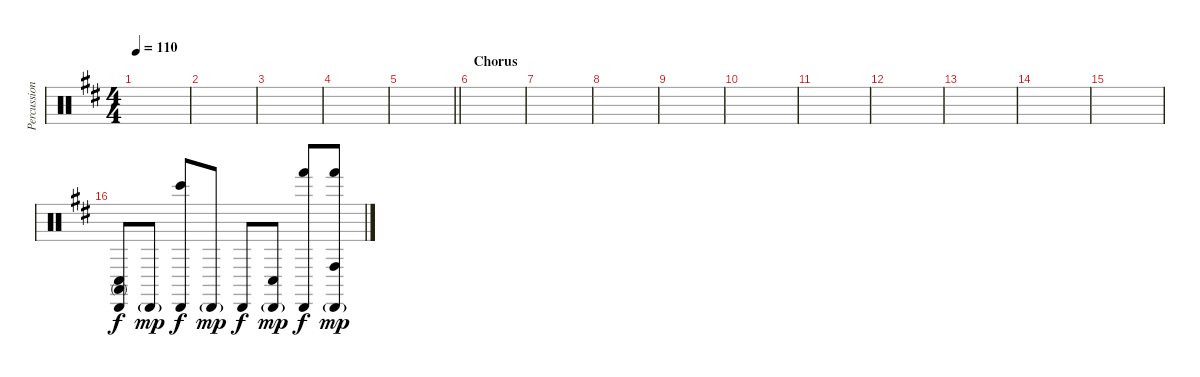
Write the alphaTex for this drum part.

\track ("Percussions" "Percussion") {instrument percussion}
\staff {score}
\articulation defaults
\ts (4 4)
\tempo 110
\clef neutral
\ks d
|
|
|
|
\barLineRight lightlight
|
\section ("" "Chorus")
|
|
|
|
|
|
|
|
|
|
("Cabasa (hit)" "Conga high (mute)" "Conga low (hit)").8 "Cabasa (hit)"{g}.8{dy mp} ("Cabasa (hit)" "Bongo High (hit)").8{dy f} "Cabasa (hit)"{g}.8{dy mp} "Cabasa (hit)".8{dy f} ("Cabasa (hit)"{g} "Conga low (hit)").8{dy mp} ("Cabasa (hit)" "Hand (hit)").8{dy f} ("Cabasa (hit)"{g} "Hand (hit)" "Conga high (hit)").8{dy mp}
